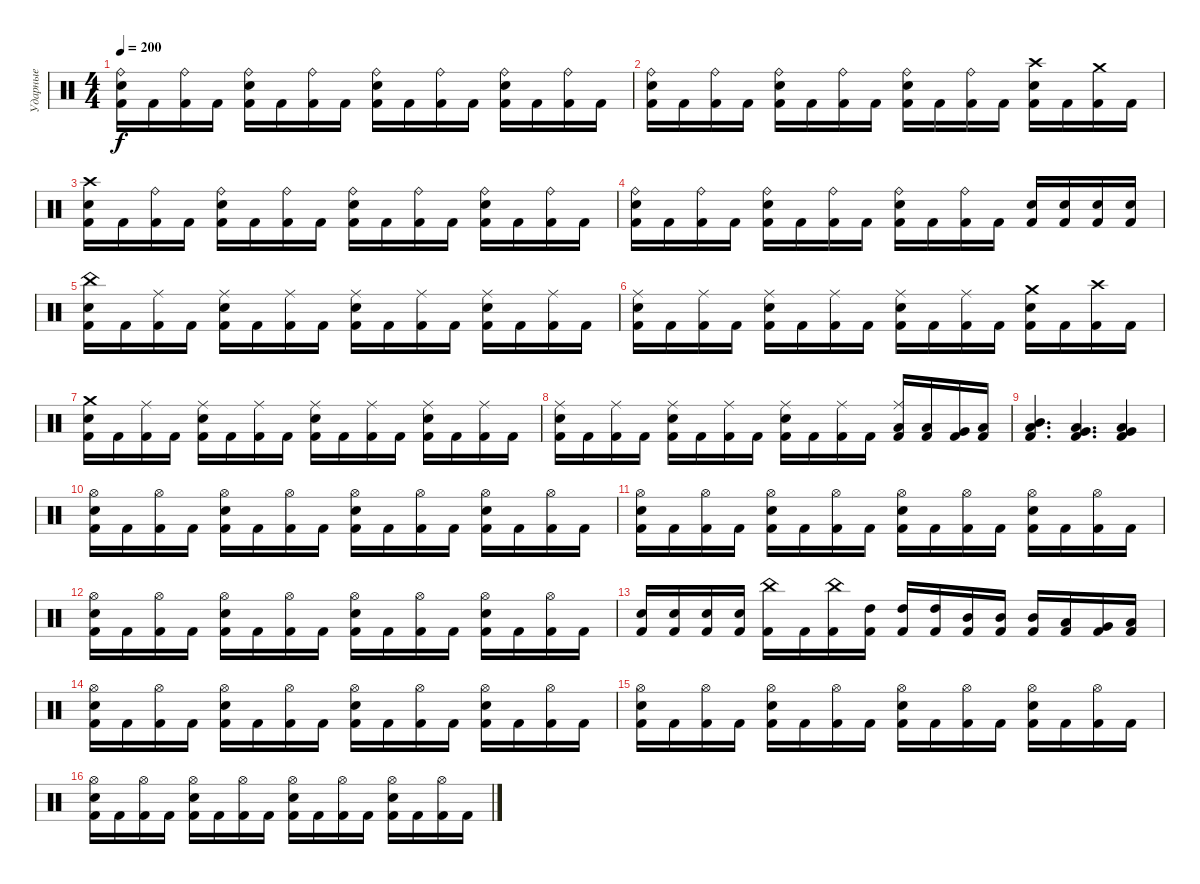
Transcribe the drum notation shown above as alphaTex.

\track ("Ударные" "Ударные") {instrument percussion}
\staff {score}
\articulation defaults
\ts (4 4)
\tempo 200
\clef neutral
\ks c
("Ride (bell)" "Snare (hit) 2" "Kick (hit) 2").16{dy f} "Kick (hit) 2".16 ("Ride (bell)" "Kick (hit) 2").16 "Kick (hit) 2".16 ("Ride (bell)" "Snare (hit) 2" "Kick (hit) 2").16 "Kick (hit) 2".16 ("Ride (bell)" "Kick (hit) 2").16 "Kick (hit) 2".16 ("Ride (bell)" "Snare (hit) 2" "Kick (hit) 2").16 "Kick (hit) 2".16 ("Ride (bell)" "Kick (hit) 2").16 "Kick (hit) 2".16 ("Ride (bell)" "Snare (hit) 2" "Kick (hit) 2").16 "Kick (hit) 2".16 ("Ride (bell)" "Kick (hit) 2").16 "Kick (hit) 2".16 |
("Ride (bell)" "Snare (hit) 2" "Kick (hit) 2").16 "Kick (hit) 2".16 ("Ride (bell)" "Kick (hit) 2").16 "Kick (hit) 2".16 ("Ride (bell)" "Snare (hit) 2" "Kick (hit) 2").16 "Kick (hit) 2".16 ("Ride (bell)" "Kick (hit) 2").16 "Kick (hit) 2".16 ("Ride (bell)" "Snare (hit) 2" "Kick (hit) 2").16 "Kick (hit) 2".16 ("Ride (bell)" "Kick (hit) 2").16 "Kick (hit) 2".16 ("Crash high (hit)" "Snare (hit) 2" "Kick (hit) 2").16 "Kick (hit) 2".16 ("Crash medium (hit)" "Kick (hit) 2").16 "Kick (hit) 2".16 |
("Crash high (hit)" "Snare (hit) 2" "Kick (hit) 2").16 "Kick (hit) 2".16 ("Ride (bell)" "Kick (hit) 2").16 "Kick (hit) 2".16 ("Ride (bell)" "Snare (hit) 2" "Kick (hit) 2").16 "Kick (hit) 2".16 ("Ride (bell)" "Kick (hit) 2").16 "Kick (hit) 2".16 ("Ride (bell)" "Snare (hit) 2" "Kick (hit) 2").16 "Kick (hit) 2".16 ("Ride (bell)" "Kick (hit) 2").16 "Kick (hit) 2".16 ("Ride (bell)" "Snare (hit) 2" "Kick (hit) 2").16 "Kick (hit) 2".16 ("Ride (bell)" "Kick (hit) 2").16 "Kick (hit) 2".16 |
("Ride (bell)" "Snare (hit) 2" "Kick (hit) 2").16 "Kick (hit) 2".16 ("Ride (bell)" "Kick (hit) 2").16 "Kick (hit) 2".16 ("Ride (bell)" "Snare (hit) 2" "Kick (hit) 2").16 "Kick (hit) 2".16 ("Ride (bell)" "Kick (hit) 2").16 "Kick (hit) 2".16 ("Ride (bell)" "Snare (hit) 2" "Kick (hit) 2").16 "Kick (hit) 2".16 ("Ride (bell)" "Kick (hit) 2").16 "Kick (hit) 2".16 ("Snare (hit) 2" "Kick (hit) 2").16 ("Snare (hit) 2" "Kick (hit) 2").16 ("Snare (hit) 2" "Kick (hit) 2").16 ("Snare (hit) 2" "Kick (hit) 2").16 |
("China (hit)" "Snare (hit) 2" "Kick (hit) 2").16 "Kick (hit) 2".16 ("Ride (middle)" "Kick (hit) 2").16 "Kick (hit) 2".16 ("Ride (middle)" "Snare (hit) 2" "Kick (hit) 2").16 "Kick (hit) 2".16 ("Ride (middle)" "Kick (hit) 2").16 "Kick (hit) 2".16 ("Ride (middle)" "Snare (hit) 2" "Kick (hit) 2").16 "Kick (hit) 2".16 ("Ride (middle)" "Kick (hit) 2").16 "Kick (hit) 2".16 ("Ride (middle)" "Snare (hit) 2" "Kick (hit) 2").16 "Kick (hit) 2".16 ("Ride (middle)" "Kick (hit) 2").16 "Kick (hit) 2".16 |
("Ride (middle)" "Snare (hit) 2" "Kick (hit) 2").16 "Kick (hit) 2".16 ("Ride (middle)" "Kick (hit) 2").16 "Kick (hit) 2".16 ("Ride (middle)" "Snare (hit) 2" "Kick (hit) 2").16 "Kick (hit) 2".16 ("Ride (middle)" "Kick (hit) 2").16 "Kick (hit) 2".16 ("Ride (middle)" "Snare (hit) 2" "Kick (hit) 2").16 "Kick (hit) 2".16 ("Ride (middle)" "Kick (hit) 2").16 "Kick (hit) 2".16 ("Crash medium (hit)" "Snare (hit) 2" "Kick (hit) 2").16 "Kick (hit) 2".16 ("Crash high (hit)" "Kick (hit) 2").16 "Kick (hit) 2".16 |
("Crash medium (hit)" "Snare (hit) 2" "Kick (hit) 2").16 "Kick (hit) 2".16 ("Ride (middle)" "Kick (hit) 2").16 "Kick (hit) 2".16 ("Ride (middle)" "Snare (hit) 2" "Kick (hit) 2").16 "Kick (hit) 2".16 ("Ride (middle)" "Kick (hit) 2").16 "Kick (hit) 2".16 ("Ride (middle)" "Snare (hit) 2" "Kick (hit) 2").16 "Kick (hit) 2".16 ("Ride (middle)" "Kick (hit) 2").16 "Kick (hit) 2".16 ("Ride (middle)" "Snare (hit) 2" "Kick (hit) 2").16 "Kick (hit) 2".16 ("Ride (middle)" "Kick (hit) 2").16 "Kick (hit) 2".16 |
("Ride (middle)" "Snare (hit) 2" "Kick (hit) 2").16 "Kick (hit) 2".16 ("Ride (middle)" "Kick (hit) 2").16 "Kick (hit) 2".16 ("Ride (middle)" "Snare (hit) 2" "Kick (hit) 2").16 "Kick (hit) 2".16 ("Ride (middle)" "Kick (hit) 2").16 "Kick (hit) 2".16 ("Ride (middle)" "Snare (hit) 2" "Kick (hit) 2").16 "Kick (hit) 2".16 ("Ride (middle)" "Kick (hit) 2").16 "Kick (hit) 2".16 ("Ride (middle)" "Low Tom (hit)" "Kick (hit) 2").16 ("Low Tom (hit)" "Kick (hit) 2").16 ("Very Low Tom (hit)" "Kick (hit) 2").16 ("Low Floor Tom (hit)" "Kick (hit) 2").16 |
("Mid Tom (hit)" "Low Tom (hit)" "Kick (hit) 2").4{d} ("Low Tom (hit)" "Very Low Tom (hit)" "Kick (hit) 2").4{d} ("Very Low Tom (hit)" "Low Floor Tom (hit)" "Kick (hit) 2").4 |
("Hi-Hat (open)" "Snare (hit) 2" "Kick (hit) 2").16 "Kick (hit) 2".16 ("Hi-Hat (open)" "Kick (hit) 2").16 "Kick (hit) 2".16 ("Hi-Hat (open)" "Snare (hit) 2" "Kick (hit) 2").16 "Kick (hit) 2".16 ("Hi-Hat (open)" "Kick (hit) 2").16 "Kick (hit) 2".16 ("Hi-Hat (open)" "Snare (hit) 2" "Kick (hit) 2").16 "Kick (hit) 2".16 ("Hi-Hat (open)" "Kick (hit) 2").16 "Kick (hit) 2".16 ("Hi-Hat (open)" "Snare (hit) 2" "Kick (hit) 2").16 "Kick (hit) 2".16 ("Hi-Hat (open)" "Kick (hit) 2").16 "Kick (hit) 2".16 |
("Hi-Hat (open)" "Snare (hit) 2" "Kick (hit) 2").16 "Kick (hit) 2".16 ("Hi-Hat (open)" "Kick (hit) 2").16 "Kick (hit) 2".16 ("Hi-Hat (open)" "Snare (hit) 2" "Kick (hit) 2").16 "Kick (hit) 2".16 ("Hi-Hat (open)" "Kick (hit) 2").16 "Kick (hit) 2".16 ("Hi-Hat (open)" "Snare (hit) 2" "Kick (hit) 2").16 "Kick (hit) 2".16 ("Hi-Hat (open)" "Kick (hit) 2").16 "Kick (hit) 2".16 ("Hi-Hat (open)" "Snare (hit) 2" "Kick (hit) 2").16 "Kick (hit) 2".16 ("Hi-Hat (open)" "Kick (hit) 2").16 "Kick (hit) 2".16 |
("Hi-Hat (open)" "Snare (hit) 2" "Kick (hit) 2").16 "Kick (hit) 2".16 ("Hi-Hat (open)" "Kick (hit) 2").16 "Kick (hit) 2".16 ("Hi-Hat (open)" "Snare (hit) 2" "Kick (hit) 2").16 "Kick (hit) 2".16 ("Hi-Hat (open)" "Kick (hit) 2").16 "Kick (hit) 2".16 ("Hi-Hat (open)" "Snare (hit) 2" "Kick (hit) 2").16 "Kick (hit) 2".16 ("Hi-Hat (open)" "Kick (hit) 2").16 "Kick (hit) 2".16 ("Hi-Hat (open)" "Snare (hit) 2" "Kick (hit) 2").16 "Kick (hit) 2".16 ("Hi-Hat (open)" "Kick (hit) 2").16 "Kick (hit) 2".16 |
("Snare (hit) 2" "Kick (hit) 2").16 ("Snare (hit) 2" "Kick (hit) 2").16 ("Snare (hit) 2" "Kick (hit) 2").16 ("Snare (hit) 2" "Kick (hit) 2").16 ("China (hit)" "Kick (hit) 2").16 "Kick (hit) 2".16 ("China (hit)" "Kick (hit) 2").16 ("High Tom (hit)" "Kick (hit) 2").16 ("High Tom (hit)" "Kick (hit) 2").16 ("High Tom (hit)" "Kick (hit) 2").16 ("Mid Tom (hit)" "Kick (hit) 2").16 ("Mid Tom (hit)" "Kick (hit) 2").16 ("Mid Tom (hit)" "Kick (hit) 2").16 ("Low Tom (hit)" "Kick (hit) 2").16 ("Very Low Tom (hit)" "Kick (hit) 2").16 ("Low Floor Tom (hit)" "Kick (hit) 2").16 |
("Hi-Hat (open)" "Snare (hit) 2" "Kick (hit) 2").16 "Kick (hit) 2".16 ("Hi-Hat (open)" "Kick (hit) 2").16 "Kick (hit) 2".16 ("Hi-Hat (open)" "Snare (hit) 2" "Kick (hit) 2").16 "Kick (hit) 2".16 ("Hi-Hat (open)" "Kick (hit) 2").16 "Kick (hit) 2".16 ("Hi-Hat (open)" "Snare (hit) 2" "Kick (hit) 2").16 "Kick (hit) 2".16 ("Hi-Hat (open)" "Kick (hit) 2").16 "Kick (hit) 2".16 ("Hi-Hat (open)" "Snare (hit) 2" "Kick (hit) 2").16 "Kick (hit) 2".16 ("Hi-Hat (open)" "Kick (hit) 2").16 "Kick (hit) 2".16 |
("Hi-Hat (open)" "Snare (hit) 2" "Kick (hit) 2").16 "Kick (hit) 2".16 ("Hi-Hat (open)" "Kick (hit) 2").16 "Kick (hit) 2".16 ("Hi-Hat (open)" "Snare (hit) 2" "Kick (hit) 2").16 "Kick (hit) 2".16 ("Hi-Hat (open)" "Kick (hit) 2").16 "Kick (hit) 2".16 ("Hi-Hat (open)" "Snare (hit) 2" "Kick (hit) 2").16 "Kick (hit) 2".16 ("Hi-Hat (open)" "Kick (hit) 2").16 "Kick (hit) 2".16 ("Hi-Hat (open)" "Snare (hit) 2" "Kick (hit) 2").16 "Kick (hit) 2".16 ("Hi-Hat (open)" "Kick (hit) 2").16 "Kick (hit) 2".16 |
("Hi-Hat (open)" "Snare (hit) 2" "Kick (hit) 2").16 "Kick (hit) 2".16 ("Hi-Hat (open)" "Kick (hit) 2").16 "Kick (hit) 2".16 ("Hi-Hat (open)" "Snare (hit) 2" "Kick (hit) 2").16 "Kick (hit) 2".16 ("Hi-Hat (open)" "Kick (hit) 2").16 "Kick (hit) 2".16 ("Hi-Hat (open)" "Snare (hit) 2" "Kick (hit) 2").16 "Kick (hit) 2".16 ("Hi-Hat (open)" "Kick (hit) 2").16 "Kick (hit) 2".16 ("Hi-Hat (open)" "Snare (hit) 2" "Kick (hit) 2").16 "Kick (hit) 2".16 ("Hi-Hat (open)" "Kick (hit) 2").16 "Kick (hit) 2".16
